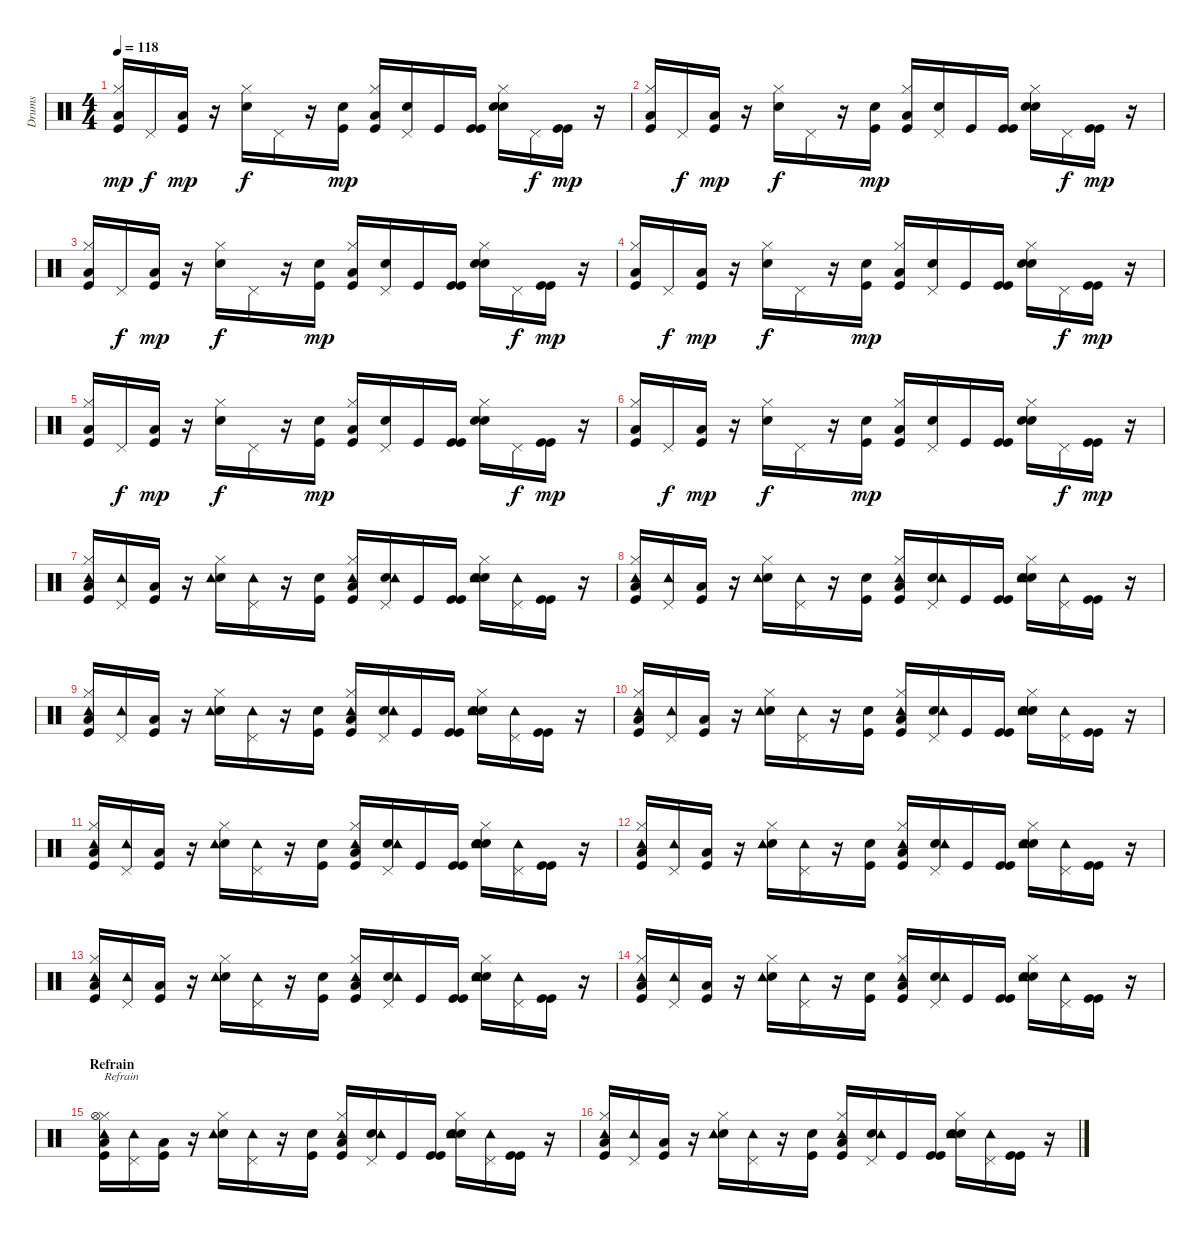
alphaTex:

\track ("Drums" "Drums") {instrument percussion}
\staff {score}
\articulation defaults
\ts (4 4)
\tempo 118
\clef neutral
\ks c
("Low Floor Tom (hit)" "Hi-Hat (closed)" "Kick (hit)").16{dy mp} "Pedal Hi-Hat (hit)".16{dy f} ("Low Floor Tom (hit)" "Kick (hit)").16{dy mp} r.16 ("Electric Snare (hit)" "Hi-Hat (closed)").16{dy f} "Pedal Hi-Hat (hit)".16 r.16 ("Kick (hit)" "Electric Snare (hit)").16{dy mp} ("Low Floor Tom (hit)" "Hi-Hat (closed)" "Kick (hit)").16 ("Pedal Hi-Hat (hit)" "Electric Snare (hit)").16 "Kick (hit)".16 ("Kick (hit)" "Kick (hit)").16 ("Electric Snare (hit)" "Hi-Hat (closed)" "Electric Snare (hit)").16 "Pedal Hi-Hat (hit)".16{dy f} ("Kick (hit)" "Kick (hit)").16{dy mp} r.16 |
("Low Floor Tom (hit)" "Hi-Hat (closed)" "Kick (hit)").16 "Pedal Hi-Hat (hit)".16{dy f} ("Low Floor Tom (hit)" "Kick (hit)").16{dy mp} r.16 ("Electric Snare (hit)" "Hi-Hat (closed)").16{dy f} "Pedal Hi-Hat (hit)".16 r.16 ("Kick (hit)" "Electric Snare (hit)").16{dy mp} ("Low Floor Tom (hit)" "Hi-Hat (closed)" "Kick (hit)").16 ("Pedal Hi-Hat (hit)" "Electric Snare (hit)").16 "Kick (hit)".16 ("Kick (hit)" "Kick (hit)").16 ("Electric Snare (hit)" "Hi-Hat (closed)" "Electric Snare (hit)").16 "Pedal Hi-Hat (hit)".16{dy f} ("Kick (hit)" "Kick (hit)").16{dy mp} r.16 |
("Low Floor Tom (hit)" "Hi-Hat (closed)" "Kick (hit)").16 "Pedal Hi-Hat (hit)".16{dy f} ("Low Floor Tom (hit)" "Kick (hit)").16{dy mp} r.16 ("Electric Snare (hit)" "Hi-Hat (closed)").16{dy f} "Pedal Hi-Hat (hit)".16 r.16 ("Kick (hit)" "Electric Snare (hit)").16{dy mp} ("Low Floor Tom (hit)" "Hi-Hat (closed)" "Kick (hit)").16 ("Pedal Hi-Hat (hit)" "Electric Snare (hit)").16 "Kick (hit)".16 ("Kick (hit)" "Kick (hit)").16 ("Electric Snare (hit)" "Hi-Hat (closed)" "Electric Snare (hit)").16 "Pedal Hi-Hat (hit)".16{dy f} ("Kick (hit)" "Kick (hit)").16{dy mp} r.16 |
("Low Floor Tom (hit)" "Hi-Hat (closed)" "Kick (hit)").16 "Pedal Hi-Hat (hit)".16{dy f} ("Low Floor Tom (hit)" "Kick (hit)").16{dy mp} r.16 ("Electric Snare (hit)" "Hi-Hat (closed)").16{dy f} "Pedal Hi-Hat (hit)".16 r.16 ("Kick (hit)" "Electric Snare (hit)").16{dy mp} ("Low Floor Tom (hit)" "Hi-Hat (closed)" "Kick (hit)").16 ("Pedal Hi-Hat (hit)" "Electric Snare (hit)").16 "Kick (hit)".16 ("Kick (hit)" "Kick (hit)").16 ("Electric Snare (hit)" "Hi-Hat (closed)" "Electric Snare (hit)").16 "Pedal Hi-Hat (hit)".16{dy f} ("Kick (hit)" "Kick (hit)").16{dy mp} r.16 |
("Low Floor Tom (hit)" "Hi-Hat (closed)" "Kick (hit)").16 "Pedal Hi-Hat (hit)".16{dy f} ("Low Floor Tom (hit)" "Kick (hit)").16{dy mp} r.16 ("Electric Snare (hit)" "Hi-Hat (closed)").16{dy f} "Pedal Hi-Hat (hit)".16 r.16 ("Kick (hit)" "Electric Snare (hit)").16{dy mp} ("Low Floor Tom (hit)" "Hi-Hat (closed)" "Kick (hit)").16 ("Pedal Hi-Hat (hit)" "Electric Snare (hit)").16 "Kick (hit)".16 ("Kick (hit)" "Kick (hit)").16 ("Electric Snare (hit)" "Hi-Hat (closed)" "Electric Snare (hit)").16 "Pedal Hi-Hat (hit)".16{dy f} ("Kick (hit)" "Kick (hit)").16{dy mp} r.16 |
("Low Floor Tom (hit)" "Hi-Hat (closed)" "Kick (hit)").16 "Pedal Hi-Hat (hit)".16{dy f} ("Low Floor Tom (hit)" "Kick (hit)").16{dy mp} r.16 ("Electric Snare (hit)" "Hi-Hat (closed)").16{dy f} "Pedal Hi-Hat (hit)".16 r.16 ("Kick (hit)" "Electric Snare (hit)").16{dy mp} ("Low Floor Tom (hit)" "Hi-Hat (closed)" "Kick (hit)").16 ("Pedal Hi-Hat (hit)" "Electric Snare (hit)").16 "Kick (hit)".16 ("Kick (hit)" "Kick (hit)").16 ("Electric Snare (hit)" "Hi-Hat (closed)" "Electric Snare (hit)").16 "Pedal Hi-Hat (hit)".16{dy f} ("Kick (hit)" "Kick (hit)").16{dy mp} r.16 |
("Low Floor Tom (hit)" "Hi-Hat (closed)" "Kick (hit)" "Tambourine (hit)").16 ("Pedal Hi-Hat (hit)" "Tambourine (hit)").16 ("Low Floor Tom (hit)" "Kick (hit)").16 r.16 ("Electric Snare (hit)" "Hi-Hat (closed)" "Tambourine (hit)").16 ("Pedal Hi-Hat (hit)" "Tambourine (hit)").16 r.16 ("Kick (hit)" "Electric Snare (hit)").16 ("Low Floor Tom (hit)" "Hi-Hat (closed)" "Kick (hit)" "Tambourine (hit)").16 ("Pedal Hi-Hat (hit)" "Electric Snare (hit)" "Tambourine (hit)").16 "Kick (hit)".16 ("Kick (hit)" "Kick (hit)").16 ("Electric Snare (hit)" "Hi-Hat (closed)" "Electric Snare (hit)" "Tambourine (hit)").16 ("Pedal Hi-Hat (hit)" "Tambourine (hit)").16 ("Kick (hit)" "Kick (hit)").16 r.16 |
("Low Floor Tom (hit)" "Hi-Hat (closed)" "Kick (hit)" "Tambourine (hit)").16 ("Pedal Hi-Hat (hit)" "Tambourine (hit)").16 ("Low Floor Tom (hit)" "Kick (hit)").16 r.16 ("Electric Snare (hit)" "Hi-Hat (closed)" "Tambourine (hit)").16 ("Pedal Hi-Hat (hit)" "Tambourine (hit)").16 r.16 ("Kick (hit)" "Electric Snare (hit)").16 ("Low Floor Tom (hit)" "Hi-Hat (closed)" "Kick (hit)" "Tambourine (hit)").16 ("Pedal Hi-Hat (hit)" "Electric Snare (hit)" "Tambourine (hit)").16 "Kick (hit)".16 ("Kick (hit)" "Kick (hit)").16 ("Electric Snare (hit)" "Hi-Hat (closed)" "Electric Snare (hit)" "Tambourine (hit)").16 ("Pedal Hi-Hat (hit)" "Tambourine (hit)").16 ("Kick (hit)" "Kick (hit)").16 r.16 |
("Low Floor Tom (hit)" "Hi-Hat (closed)" "Kick (hit)" "Tambourine (hit)").16 ("Pedal Hi-Hat (hit)" "Tambourine (hit)").16 ("Low Floor Tom (hit)" "Kick (hit)").16 r.16 ("Electric Snare (hit)" "Hi-Hat (closed)" "Tambourine (hit)").16 ("Pedal Hi-Hat (hit)" "Tambourine (hit)").16 r.16 ("Kick (hit)" "Electric Snare (hit)").16 ("Low Floor Tom (hit)" "Hi-Hat (closed)" "Kick (hit)" "Tambourine (hit)").16 ("Pedal Hi-Hat (hit)" "Electric Snare (hit)" "Tambourine (hit)").16 "Kick (hit)".16 ("Kick (hit)" "Kick (hit)").16 ("Electric Snare (hit)" "Hi-Hat (closed)" "Electric Snare (hit)" "Tambourine (hit)").16 ("Pedal Hi-Hat (hit)" "Tambourine (hit)").16 ("Kick (hit)" "Kick (hit)").16 r.16 |
("Low Floor Tom (hit)" "Hi-Hat (closed)" "Kick (hit)" "Tambourine (hit)").16 ("Pedal Hi-Hat (hit)" "Tambourine (hit)").16 ("Low Floor Tom (hit)" "Kick (hit)").16 r.16 ("Electric Snare (hit)" "Hi-Hat (closed)" "Tambourine (hit)").16 ("Pedal Hi-Hat (hit)" "Tambourine (hit)").16 r.16 ("Kick (hit)" "Electric Snare (hit)").16 ("Low Floor Tom (hit)" "Hi-Hat (closed)" "Kick (hit)" "Tambourine (hit)").16 ("Pedal Hi-Hat (hit)" "Electric Snare (hit)" "Tambourine (hit)").16 "Kick (hit)".16 ("Kick (hit)" "Kick (hit)").16 ("Electric Snare (hit)" "Hi-Hat (closed)" "Electric Snare (hit)" "Tambourine (hit)").16 ("Pedal Hi-Hat (hit)" "Tambourine (hit)").16 ("Kick (hit)" "Kick (hit)").16 r.16 |
("Low Floor Tom (hit)" "Hi-Hat (closed)" "Kick (hit)" "Tambourine (hit)").16 ("Pedal Hi-Hat (hit)" "Tambourine (hit)").16 ("Low Floor Tom (hit)" "Kick (hit)").16 r.16 ("Electric Snare (hit)" "Hi-Hat (closed)" "Tambourine (hit)").16 ("Pedal Hi-Hat (hit)" "Tambourine (hit)").16 r.16 ("Kick (hit)" "Electric Snare (hit)").16 ("Low Floor Tom (hit)" "Hi-Hat (closed)" "Kick (hit)" "Tambourine (hit)").16 ("Pedal Hi-Hat (hit)" "Electric Snare (hit)" "Tambourine (hit)").16 "Kick (hit)".16 ("Kick (hit)" "Kick (hit)").16 ("Electric Snare (hit)" "Hi-Hat (closed)" "Electric Snare (hit)" "Tambourine (hit)").16 ("Pedal Hi-Hat (hit)" "Tambourine (hit)").16 ("Kick (hit)" "Kick (hit)").16 r.16 |
("Low Floor Tom (hit)" "Hi-Hat (closed)" "Kick (hit)" "Tambourine (hit)").16 ("Pedal Hi-Hat (hit)" "Tambourine (hit)").16 ("Low Floor Tom (hit)" "Kick (hit)").16 r.16 ("Electric Snare (hit)" "Hi-Hat (closed)" "Tambourine (hit)").16 ("Pedal Hi-Hat (hit)" "Tambourine (hit)").16 r.16 ("Kick (hit)" "Electric Snare (hit)").16 ("Low Floor Tom (hit)" "Hi-Hat (closed)" "Kick (hit)" "Tambourine (hit)").16 ("Pedal Hi-Hat (hit)" "Electric Snare (hit)" "Tambourine (hit)").16 "Kick (hit)".16 ("Kick (hit)" "Kick (hit)").16 ("Electric Snare (hit)" "Hi-Hat (closed)" "Electric Snare (hit)" "Tambourine (hit)").16 ("Pedal Hi-Hat (hit)" "Tambourine (hit)").16 ("Kick (hit)" "Kick (hit)").16 r.16 |
("Low Floor Tom (hit)" "Hi-Hat (closed)" "Kick (hit)" "Tambourine (hit)").16 ("Pedal Hi-Hat (hit)" "Tambourine (hit)").16 ("Low Floor Tom (hit)" "Kick (hit)").16 r.16 ("Electric Snare (hit)" "Hi-Hat (closed)" "Tambourine (hit)").16 ("Pedal Hi-Hat (hit)" "Tambourine (hit)").16 r.16 ("Kick (hit)" "Electric Snare (hit)").16 ("Low Floor Tom (hit)" "Hi-Hat (closed)" "Kick (hit)" "Tambourine (hit)").16 ("Pedal Hi-Hat (hit)" "Electric Snare (hit)" "Tambourine (hit)").16 "Kick (hit)".16 ("Kick (hit)" "Kick (hit)").16 ("Electric Snare (hit)" "Hi-Hat (closed)" "Electric Snare (hit)" "Tambourine (hit)").16 ("Pedal Hi-Hat (hit)" "Tambourine (hit)").16 ("Kick (hit)" "Kick (hit)").16 r.16 |
("Low Floor Tom (hit)" "Hi-Hat (closed)" "Kick (hit)" "Tambourine (hit)").16 ("Pedal Hi-Hat (hit)" "Tambourine (hit)").16 ("Low Floor Tom (hit)" "Kick (hit)").16 r.16 ("Electric Snare (hit)" "Hi-Hat (closed)" "Tambourine (hit)").16 ("Pedal Hi-Hat (hit)" "Tambourine (hit)").16 r.16 ("Kick (hit)" "Electric Snare (hit)").16 ("Low Floor Tom (hit)" "Hi-Hat (closed)" "Kick (hit)" "Tambourine (hit)").16 ("Pedal Hi-Hat (hit)" "Electric Snare (hit)" "Tambourine (hit)").16 "Kick (hit)".16 ("Kick (hit)" "Kick (hit)").16 ("Electric Snare (hit)" "Hi-Hat (closed)" "Electric Snare (hit)" "Tambourine (hit)").16 ("Pedal Hi-Hat (hit)" "Tambourine (hit)").16 ("Kick (hit)" "Kick (hit)").16 r.16 |
\section ("" "Refrain")
("Low Floor Tom (hit)" "Hi-Hat (closed)" "Kick (hit)" "Tambourine (hit)" "Hi-Hat (open)").16{txt "Refrain"} ("Pedal Hi-Hat (hit)" "Tambourine (hit)").16 ("Low Floor Tom (hit)" "Kick (hit)").16 r.16 ("Electric Snare (hit)" "Hi-Hat (closed)" "Tambourine (hit)").16 ("Pedal Hi-Hat (hit)" "Tambourine (hit)").16 r.16 ("Kick (hit)" "Electric Snare (hit)").16 ("Low Floor Tom (hit)" "Hi-Hat (closed)" "Kick (hit)" "Tambourine (hit)").16 ("Pedal Hi-Hat (hit)" "Electric Snare (hit)" "Tambourine (hit)").16 "Kick (hit)".16 ("Kick (hit)" "Kick (hit)").16 ("Electric Snare (hit)" "Hi-Hat (closed)" "Electric Snare (hit)" "Tambourine (hit)").16 ("Pedal Hi-Hat (hit)" "Tambourine (hit)").16 ("Kick (hit)" "Kick (hit)").16 r.16 |
("Low Floor Tom (hit)" "Hi-Hat (closed)" "Kick (hit)" "Tambourine (hit)").16 ("Pedal Hi-Hat (hit)" "Tambourine (hit)").16 ("Low Floor Tom (hit)" "Kick (hit)").16 r.16 ("Electric Snare (hit)" "Hi-Hat (closed)" "Tambourine (hit)").16 ("Pedal Hi-Hat (hit)" "Tambourine (hit)").16 r.16 ("Kick (hit)" "Electric Snare (hit)").16 ("Low Floor Tom (hit)" "Hi-Hat (closed)" "Kick (hit)" "Tambourine (hit)").16 ("Pedal Hi-Hat (hit)" "Electric Snare (hit)" "Tambourine (hit)").16 "Kick (hit)".16 ("Kick (hit)" "Kick (hit)").16 ("Electric Snare (hit)" "Hi-Hat (closed)" "Electric Snare (hit)" "Tambourine (hit)").16 ("Pedal Hi-Hat (hit)" "Tambourine (hit)").16 ("Kick (hit)" "Kick (hit)").16 r.16
